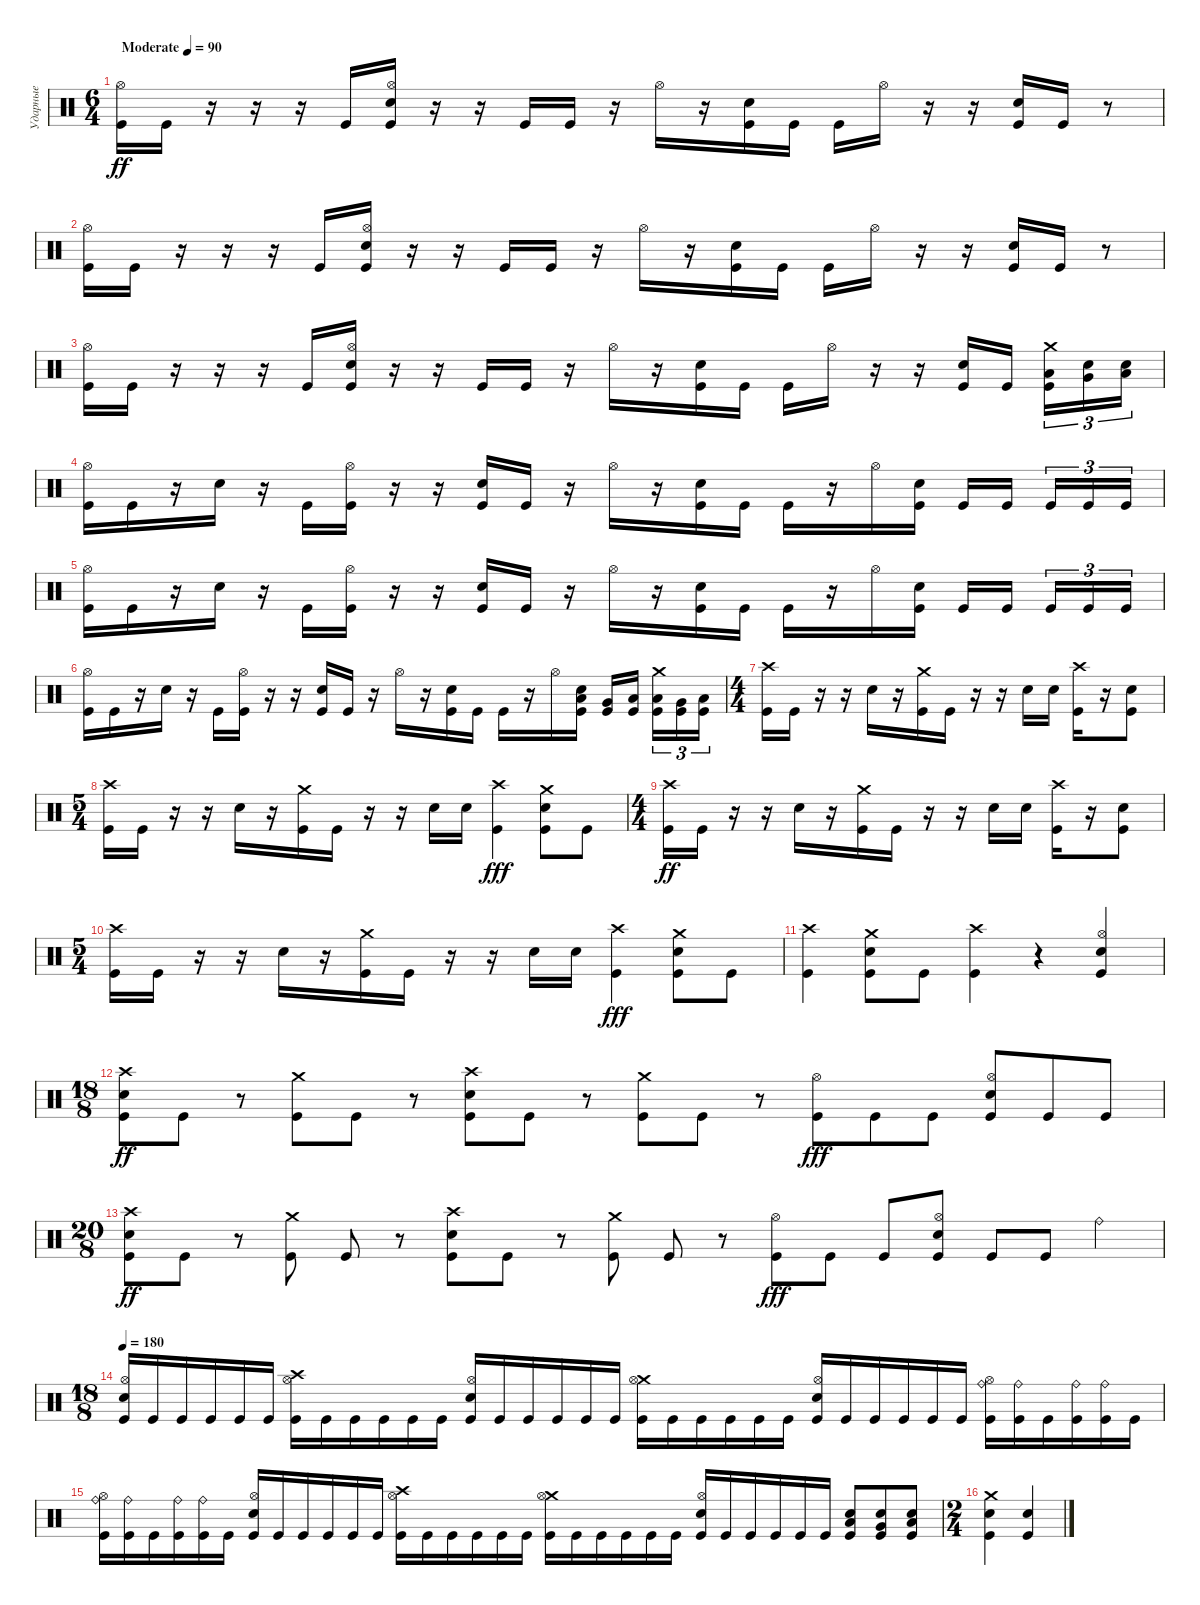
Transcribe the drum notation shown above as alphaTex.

\track ("Ударные" "Ударные") {instrument percussion}
\staff {score}
\articulation defaults
\ts (6 4)
\tempo (90 "Moderate")
\clef neutral
\ks c
("Kick (hit)" "Hi-Hat (open)").16{dy ff} "Kick (hit)".16 r.16 r.16 r.16 "Kick (hit)".16 ("Kick (hit)" "Snare (hit) 2" "Hi-Hat (open)").16 r.16 r.16 "Kick (hit)".16 "Kick (hit)".16 r.16 "Hi-Hat (open)".16 r.16 ("Kick (hit)" "Snare (hit) 2").16 "Kick (hit)".16 "Kick (hit)".16 "Hi-Hat (open)".16 r.16 r.16 ("Kick (hit)" "Snare (hit) 2").16 "Kick (hit)".16 r.8 |
("Kick (hit)" "Hi-Hat (open)").16 "Kick (hit)".16 r.16 r.16 r.16 "Kick (hit)".16 ("Kick (hit)" "Snare (hit) 2" "Hi-Hat (open)").16 r.16 r.16 "Kick (hit)".16 "Kick (hit)".16 r.16 "Hi-Hat (open)".16 r.16 ("Kick (hit)" "Snare (hit) 2").16 "Kick (hit)".16 "Kick (hit)".16 "Hi-Hat (open)".16 r.16 r.16 ("Kick (hit)" "Snare (hit) 2").16 "Kick (hit)".16 r.8 |
("Kick (hit)" "Hi-Hat (open)").16 "Kick (hit)".16 r.16 r.16 r.16 "Kick (hit)".16 ("Kick (hit)" "Snare (hit) 2" "Hi-Hat (open)").16 r.16 r.16 "Kick (hit)".16 "Kick (hit)".16 r.16 "Hi-Hat (open)".16 r.16 ("Kick (hit)" "Snare (hit) 2").16 "Kick (hit)".16 "Kick (hit)".16 "Hi-Hat (open)".16 r.16 r.16 ("Kick (hit)" "Snare (hit) 2").16 "Kick (hit)".16{beam splitsecondary} ("Kick (hit)" "Low Tom (hit)" "Crash medium (hit)").16{tu (3 2)} ("Snare (hit)" "Very Low Tom (hit)").16{tu (3 2)} ("Snare (hit)" "Low Floor Tom (hit)").16{tu (3 2)} |
("Kick (hit)" "Hi-Hat (open)").16 "Kick (hit)".16 r.16 "Snare (hit) 2".16 r.16 "Kick (hit)".16 ("Kick (hit)" "Hi-Hat (open)").16 r.16 r.16 ("Kick (hit)" "Snare (hit) 2").16 "Kick (hit)".16 r.16 "Hi-Hat (open)".16 r.16 ("Kick (hit)" "Snare (hit) 2").16 "Kick (hit)".16 "Kick (hit)".16 r.16 "Hi-Hat (open)".16 ("Kick (hit)" "Snare (hit) 2").16 "Kick (hit)".16 "Kick (hit)".16{beam splitsecondary} "Kick (hit)".16{tu (3 2)} "Kick (hit)".16{tu (3 2)} "Kick (hit)".16{tu (3 2)} |
("Kick (hit)" "Hi-Hat (open)").16 "Kick (hit)".16 r.16 "Snare (hit) 2".16 r.16 "Kick (hit)".16 ("Kick (hit)" "Hi-Hat (open)").16 r.16 r.16 ("Kick (hit)" "Snare (hit) 2").16 "Kick (hit)".16 r.16 "Hi-Hat (open)".16 r.16 ("Kick (hit)" "Snare (hit) 2").16 "Kick (hit)".16 "Kick (hit)".16 r.16 "Hi-Hat (open)".16 ("Kick (hit)" "Snare (hit) 2").16 "Kick (hit)".16 "Kick (hit)".16{beam splitsecondary} "Kick (hit)".16{tu (3 2)} "Kick (hit)".16{tu (3 2)} "Kick (hit)".16{tu (3 2)} |
("Kick (hit)" "Hi-Hat (open)").16 "Kick (hit)".16 r.16 "Snare (hit) 2".16 r.16 "Kick (hit)".16 ("Kick (hit)" "Hi-Hat (open)").16 r.16 r.16 ("Kick (hit)" "Snare (hit) 2").16 "Kick (hit)".16 r.16 "Hi-Hat (open)".16 r.16 ("Kick (hit)" "Snare (hit) 2").16 "Kick (hit)".16 "Kick (hit)".16 r.16 "Hi-Hat (open)".16 ("Kick (hit)" "Low Tom (hit)" "Snare (hit) 2").16 ("Kick (hit)" "Very Low Tom (hit)").16 ("Kick (hit)" "Low Floor Tom (hit)").16{beam splitsecondary} ("Kick (hit)" "Low Tom (hit)" "Crash medium (hit)").16{tu (3 2)} ("Kick (hit)" "Very Low Tom (hit)").16{tu (3 2)} ("Kick (hit)" "Low Floor Tom (hit)").16{tu (3 2)} |
\ts (4 4)
("Kick (hit)" "Crash high (hit)").16 "Kick (hit)".16 r.16 r.16 "Snare (hit) 2".16 r.16 ("Kick (hit)" "Crash medium (hit)").16 "Kick (hit)".16 r.16 r.16 "Snare (hit) 2".16 "Snare (hit) 2".16 ("Kick (hit)" "Crash high (hit)").16 r.16 ("Kick (hit)" "Snare (hit) 2").8 |
\ts (5 4)
("Kick (hit)" "Crash high (hit)").16 "Kick (hit)".16 r.16 r.16 "Snare (hit) 2".16 r.16 ("Kick (hit)" "Crash medium (hit)").16 "Kick (hit)".16 r.16 r.16 "Snare (hit) 2".16 "Snare (hit) 2".16 ("Kick (hit)" "Crash high (hit)").4{dy fff} ("Kick (hit)" "Snare (hit) 2" "Crash medium (hit)").8 "Kick (hit)".8 |
\ts (4 4)
("Kick (hit)" "Crash high (hit)").16{dy ff} "Kick (hit)".16 r.16 r.16 "Snare (hit) 2".16 r.16 ("Kick (hit)" "Crash medium (hit)").16 "Kick (hit)".16 r.16 r.16 "Snare (hit) 2".16 "Snare (hit) 2".16 ("Kick (hit)" "Crash high (hit)").16 r.16 ("Kick (hit)" "Snare (hit) 2").8 |
\ts (5 4)
("Kick (hit)" "Crash high (hit)").16 "Kick (hit)".16 r.16 r.16 "Snare (hit) 2".16 r.16 ("Kick (hit)" "Crash medium (hit)").16 "Kick (hit)".16 r.16 r.16 "Snare (hit) 2".16 "Snare (hit) 2".16 ("Kick (hit)" "Crash high (hit)").4{dy fff} ("Kick (hit)" "Snare (hit) 2" "Crash medium (hit)").8 "Kick (hit)".8 |
("Kick (hit)" "Crash high (hit)").4 ("Kick (hit)" "Snare (hit) 2" "Crash medium (hit)").8 "Kick (hit)".8 ("Kick (hit)" "Crash high (hit)").4 r.4 ("Snare (hit) 2" "Hi-Hat (open)" "Kick (hit)").4 |
\ts (18 8)
("Kick (hit)" "Snare (hit) 2" "Crash high (hit)").8{dy ff} "Kick (hit)".8 r.8 ("Kick (hit)" "Crash medium (hit)").8 "Kick (hit)".8 r.8 ("Kick (hit)" "Snare (hit) 2" "Crash high (hit)").8 "Kick (hit)".8 r.8 ("Kick (hit)" "Crash medium (hit)").8 "Kick (hit)".8 r.8 ("Kick (hit)" "Hi-Hat (open)").8{dy fff} "Kick (hit)".8 "Kick (hit)".8 ("Kick (hit)" "Snare (hit) 2" "Hi-Hat (open)").8 "Kick (hit)".8 "Kick (hit)".8 |
\ts (20 8)
("Kick (hit)" "Snare (hit) 2" "Crash high (hit)").8{dy ff} "Kick (hit)".8 r.8 ("Kick (hit)" "Crash medium (hit)").8 "Kick (hit)".8 r.8 ("Kick (hit)" "Snare (hit) 2" "Crash high (hit)").8 "Kick (hit)".8 r.8 ("Kick (hit)" "Crash medium (hit)").8 "Kick (hit)".8 r.8 ("Kick (hit)" "Hi-Hat (open)").8{dy fff} "Kick (hit)".8 "Kick (hit)".8 ("Kick (hit)" "Snare (hit) 2" "Hi-Hat (open)").8 "Kick (hit)".8 "Kick (hit)".8 "Ride (bell)".4 |
\ts (18 8)
\tempo 180
("Kick (hit)" "Snare (hit) 2" "Hi-Hat (open)").16 "Kick (hit)".16 "Kick (hit)".16 "Kick (hit)".16 "Kick (hit)".16 "Kick (hit)".16 ("Kick (hit)" "Crash high (hit)" "Hi-Hat (open)").16 "Kick (hit)".16 "Kick (hit)".16 "Kick (hit)".16 "Kick (hit)".16 "Kick (hit)".16 ("Kick (hit)" "Snare (hit) 2" "Hi-Hat (open)").16 "Kick (hit)".16 "Kick (hit)".16 "Kick (hit)".16 "Kick (hit)".16 "Kick (hit)".16 ("Kick (hit)" "Crash medium (hit)" "Hi-Hat (open)").16 "Kick (hit)".16 "Kick (hit)".16 "Kick (hit)".16 "Kick (hit)".16 "Kick (hit)".16 ("Kick (hit)" "Snare (hit) 2" "Hi-Hat (open)").16 "Kick (hit)".16 "Kick (hit)".16 "Kick (hit)".16 "Kick (hit)".16 "Kick (hit)".16 ("Kick (hit)" "Ride (bell)" "Hi-Hat (open)").16 ("Kick (hit)" "Ride (bell)").16 "Kick (hit)".16 ("Kick (hit)" "Ride (bell)").16 ("Kick (hit)" "Ride (bell)").16 "Kick (hit)".16 |
("Kick (hit)" "Ride (bell)" "Hi-Hat (open)").16 ("Kick (hit)" "Ride (bell)").16 "Kick (hit)".16 ("Kick (hit)" "Ride (bell)").16 ("Kick (hit)" "Ride (bell)").16 "Kick (hit)".16 ("Kick (hit)" "Snare (hit) 2" "Hi-Hat (open)").16 "Kick (hit)".16 "Kick (hit)".16 "Kick (hit)".16 "Kick (hit)".16 "Kick (hit)".16 ("Kick (hit)" "Crash high (hit)" "Hi-Hat (open)").16 "Kick (hit)".16 "Kick (hit)".16 "Kick (hit)".16 "Kick (hit)".16 "Kick (hit)".16 ("Kick (hit)" "Crash medium (hit)" "Hi-Hat (open)").16 "Kick (hit)".16 "Kick (hit)".16 "Kick (hit)".16 "Kick (hit)".16 "Kick (hit)".16 ("Kick (hit)" "Snare (hit) 2" "Hi-Hat (open)").16 "Kick (hit)".16 "Kick (hit)".16 "Kick (hit)".16 "Kick (hit)".16 "Kick (hit)".16 ("Kick (hit)" "Snare (hit) 2" "Low Tom (hit)").8 ("Kick (hit)" "Snare (hit) 2" "Very Low Tom (hit)").8 ("Kick (hit)" "Snare (hit) 2" "Low Floor Tom (hit)").8 |
\ts (2 4)
("Kick (hit)" "Snare (hit) 2" "Crash medium (hit)").4 ("Kick (hit)" "Snare (hit) 2").4
